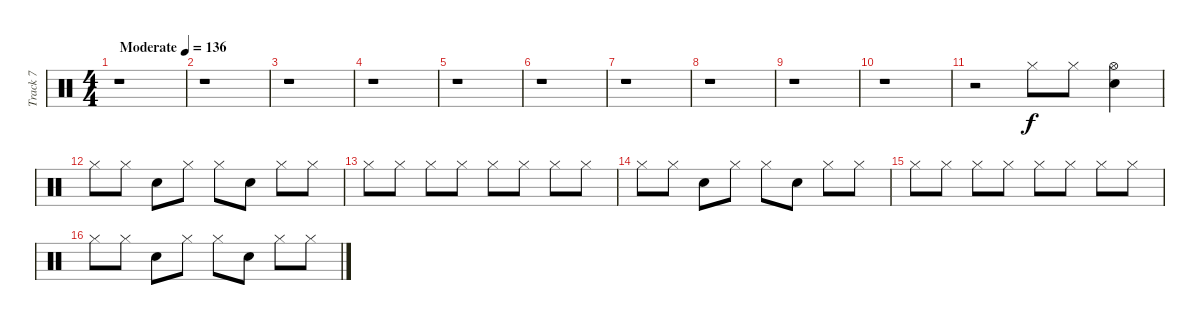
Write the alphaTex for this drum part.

\track ("Track 7" "Track 7") {instrument percussion}
\staff {score}
\articulation defaults
\ts (4 4)
\tempo (136 "Moderate")
\clef neutral
\ks c
r.1{dy f} |
r.1 |
r.1 |
r.1 |
r.1 |
r.1 |
r.1 |
r.1 |
r.1 |
r.1 |
r.2 "Hi-Hat (closed)".8 "Hi-Hat (closed)".8 ("Hi-Hat (open)" "Electric Snare (hit)").4 |
"Hi-Hat (closed)".8 "Hi-Hat (closed)".8 "Electric Snare (hit)".8 "Hi-Hat (closed)".8 "Hi-Hat (closed)".8 "Electric Snare (hit)".8 "Hi-Hat (closed)".8 "Hi-Hat (closed)".8 |
"Hi-Hat (closed)".8 "Hi-Hat (closed)".8 "Hi-Hat (closed)".8 "Hi-Hat (closed)".8 "Hi-Hat (closed)".8 "Hi-Hat (closed)".8 "Hi-Hat (closed)".8 "Hi-Hat (closed)".8 |
"Hi-Hat (closed)".8 "Hi-Hat (closed)".8 "Electric Snare (hit)".8 "Hi-Hat (closed)".8 "Hi-Hat (closed)".8 "Electric Snare (hit)".8 "Hi-Hat (closed)".8 "Hi-Hat (closed)".8 |
"Hi-Hat (closed)".8 "Hi-Hat (closed)".8 "Hi-Hat (closed)".8 "Hi-Hat (closed)".8 "Hi-Hat (closed)".8 "Hi-Hat (closed)".8 "Hi-Hat (closed)".8 "Hi-Hat (closed)".8 |
"Hi-Hat (closed)".8 "Hi-Hat (closed)".8 "Electric Snare (hit)".8 "Hi-Hat (closed)".8 "Hi-Hat (closed)".8 "Electric Snare (hit)".8 "Hi-Hat (closed)".8 "Hi-Hat (closed)".8
